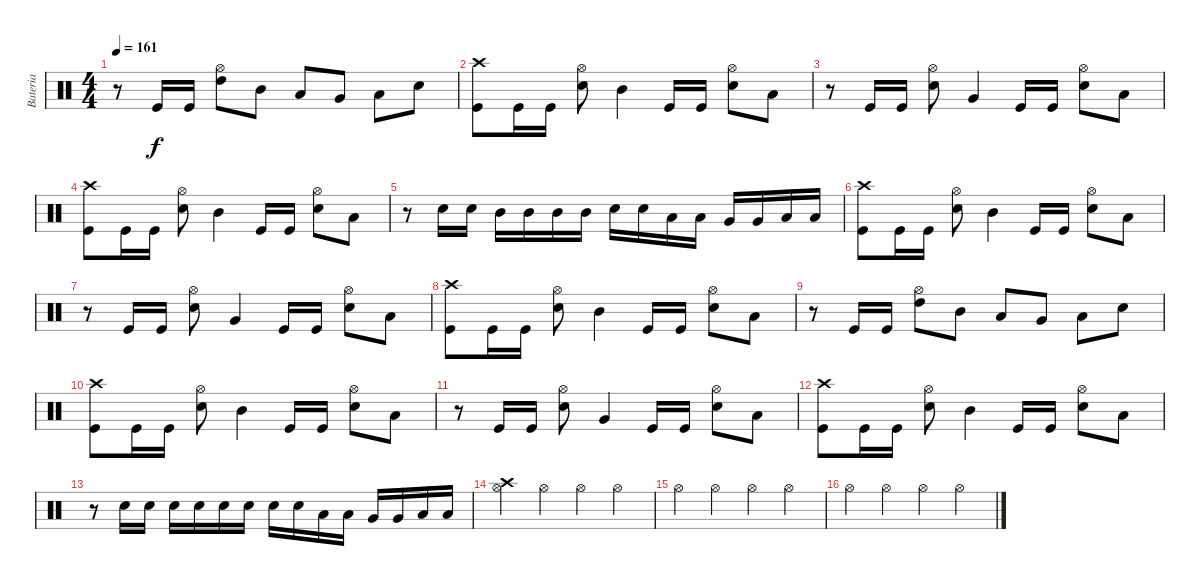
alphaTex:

\track ("Bateria" "Bateria") {instrument percussion}
\staff {score}
\articulation defaults
\ts (4 4)
\tempo 161
\clef neutral
\ks c
r.8{dy f} "Kick (hit)".16 "Kick (hit)".16 ("Hi-Hat (open)" "High Tom (hit)").8 "Mid Tom (hit)".8 "Low Tom (hit)".8 "Very Low Tom (hit)".8 "Low Floor Tom (hit)".8 "Electric Snare (hit)".8 |
("Kick (hit)" "Crash high (hit)").8 "Kick (hit)".16 "Kick (hit)".16 ("Hi-Hat (open)" "Electric Snare (hit)").8 "Mid Tom (hit)".4 "Kick (hit)".16 "Kick (hit)".16 ("Hi-Hat (open)" "Electric Snare (hit)").8 "Low Tom (hit)".8 |
r.8 "Kick (hit)".16 "Kick (hit)".16 ("Hi-Hat (open)" "Electric Snare (hit)").8 "Very Low Tom (hit)".4 "Kick (hit)".16 "Kick (hit)".16 ("Hi-Hat (open)" "Electric Snare (hit)").8 "Low Floor Tom (hit)".8 |
("Kick (hit)" "Crash high (hit)").8 "Kick (hit)".16 "Kick (hit)".16 ("Hi-Hat (open)" "Electric Snare (hit)").8 "Mid Tom (hit)".4 "Kick (hit)".16 "Kick (hit)".16 ("Hi-Hat (open)" "Electric Snare (hit)").8 "Low Tom (hit)".8 |
r.8 "Electric Snare (hit)".16 "Electric Snare (hit)".16 "Mid Tom (hit)".16 "Mid Tom (hit)".16 "Mid Tom (hit)".16 "Mid Tom (hit)".16 "Electric Snare (hit)".16 "Electric Snare (hit)".16 "Low Tom (hit)".16 "Low Tom (hit)".16 "Very Low Tom (hit)".16 "Very Low Tom (hit)".16 "Low Floor Tom (hit)".16 "Low Floor Tom (hit)".16 |
("Kick (hit)" "Crash high (hit)").8 "Kick (hit)".16 "Kick (hit)".16 ("Hi-Hat (open)" "Electric Snare (hit)").8 "Mid Tom (hit)".4 "Kick (hit)".16 "Kick (hit)".16 ("Hi-Hat (open)" "Electric Snare (hit)").8 "Low Tom (hit)".8 |
r.8 "Kick (hit)".16 "Kick (hit)".16 ("Hi-Hat (open)" "Electric Snare (hit)").8 "Very Low Tom (hit)".4 "Kick (hit)".16 "Kick (hit)".16 ("Hi-Hat (open)" "Electric Snare (hit)").8 "Low Floor Tom (hit)".8 |
("Kick (hit)" "Crash high (hit)").8 "Kick (hit)".16 "Kick (hit)".16 ("Hi-Hat (open)" "Electric Snare (hit)").8 "Mid Tom (hit)".4 "Kick (hit)".16 "Kick (hit)".16 ("Hi-Hat (open)" "Electric Snare (hit)").8 "Low Tom (hit)".8 |
r.8 "Kick (hit)".16 "Kick (hit)".16 ("Hi-Hat (open)" "High Tom (hit)").8 "Mid Tom (hit)".8 "Low Tom (hit)".8 "Very Low Tom (hit)".8 "Low Floor Tom (hit)".8 "Electric Snare (hit)".8 |
("Kick (hit)" "Crash high (hit)").8 "Kick (hit)".16 "Kick (hit)".16 ("Hi-Hat (open)" "Electric Snare (hit)").8 "Mid Tom (hit)".4 "Kick (hit)".16 "Kick (hit)".16 ("Hi-Hat (open)" "Electric Snare (hit)").8 "Low Tom (hit)".8 |
r.8 "Kick (hit)".16 "Kick (hit)".16 ("Hi-Hat (open)" "Electric Snare (hit)").8 "Very Low Tom (hit)".4 "Kick (hit)".16 "Kick (hit)".16 ("Hi-Hat (open)" "Electric Snare (hit)").8 "Low Floor Tom (hit)".8 |
("Kick (hit)" "Crash high (hit)").8 "Kick (hit)".16 "Kick (hit)".16 ("Hi-Hat (open)" "Electric Snare (hit)").8 "Mid Tom (hit)".4 "Kick (hit)".16 "Kick (hit)".16 ("Hi-Hat (open)" "Electric Snare (hit)").8 "Low Tom (hit)".8 |
r.8 "Electric Snare (hit)".16 "Electric Snare (hit)".16 "Electric Snare (hit)".16 "Electric Snare (hit)".16 "Electric Snare (hit)".16 "Electric Snare (hit)".16 "Electric Snare (hit)".16 "Electric Snare (hit)".16 "Low Tom (hit)".16 "Low Tom (hit)".16 "Very Low Tom (hit)".16 "Very Low Tom (hit)".16 "Low Floor Tom (hit)".16 "Low Floor Tom (hit)".16 |
("Crash high (hit)" "Hi-Hat (open)").4 "Hi-Hat (open)".4 "Hi-Hat (open)".4 "Hi-Hat (open)".4 |
"Hi-Hat (open)".4 "Hi-Hat (open)".4 "Hi-Hat (open)".4 "Hi-Hat (open)".4 |
"Hi-Hat (open)".4 "Hi-Hat (open)".4 "Hi-Hat (open)".4 "Hi-Hat (open)".4
